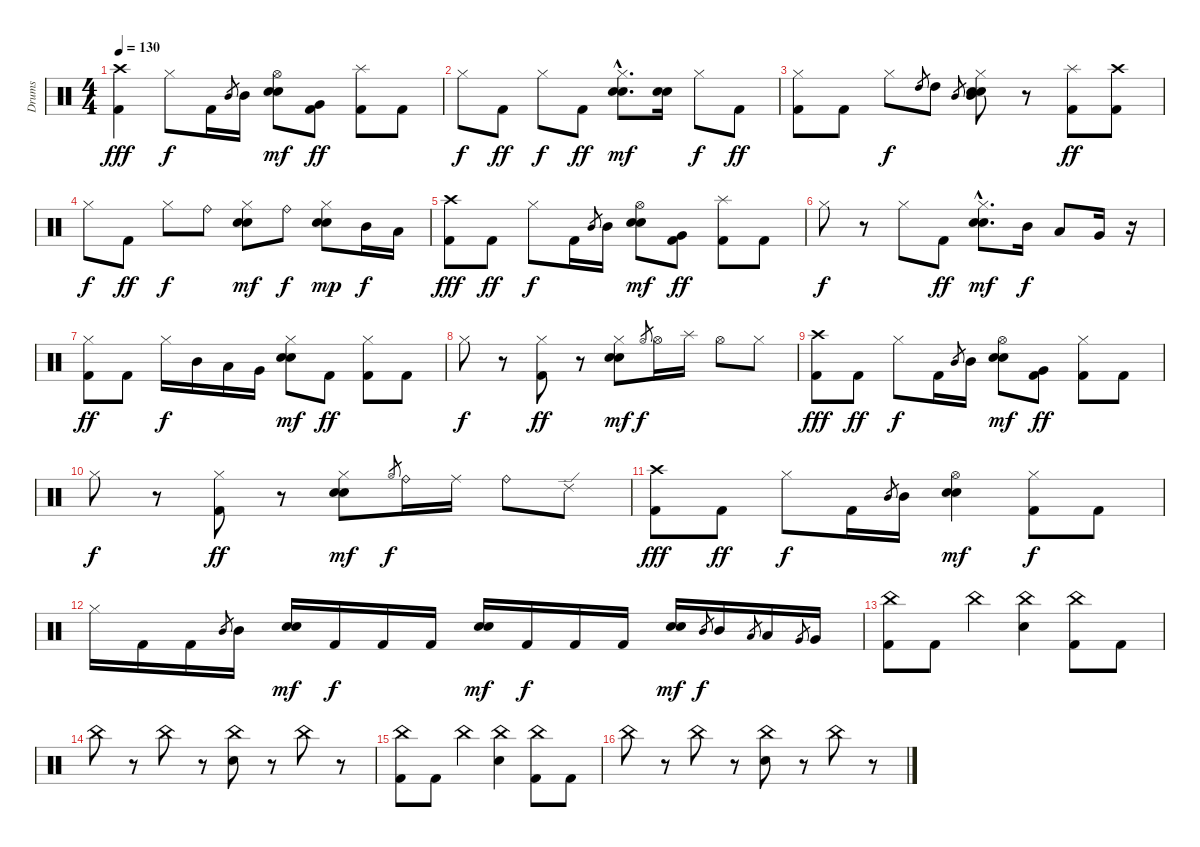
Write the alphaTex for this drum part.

\track ("Drums" "Drums") {instrument percussion}
\staff {score}
\articulation defaults
\ts (4 4)
\tempo 130
\clef neutral
\ks c
("Crash high (hit)" "Kick (hit) 2").4{dy fff} "Hi-Hat (closed)".8{dy f} "Kick (hit) 2".16 "Mid Tom (hit)".8{gr} "Mid Tom (hit)".16 ("Hi-Hat (open)" "Electric Snare (hit)" "Metronome (bell)").8{dy mf} ("Very Low Tom (hit)" "Kick (hit) 2").8{dy ff} ("Splash (hit)" "Kick (hit) 2").8 "Kick (hit) 2".8 |
"Hi-Hat (closed)".8{dy f} "Kick (hit) 2".8{dy ff} "Hi-Hat (closed)".8{dy f} "Kick (hit) 2".8{dy ff} ("Hi-Hat (closed)"{hac} "Electric Snare (hit)"{hac} "Metronome (bell)"{hac}).8{d dy mf} ("Electric Snare (hit)" "Metronome (bell)").16 "Hi-Hat (closed)".8{dy f} "Kick (hit) 2".8{dy ff} |
("Hi-Hat (closed)" "Kick (hit) 2").8 "Kick (hit) 2".8 "Hi-Hat (closed)".8{dy f} "High Tom (hit)".8{gr} "High Tom (hit)".8 "Mid Tom (hit)".8{gr} ("Hi-Hat (closed)" "Mid Tom (hit)" "Electric Snare (hit)" "Metronome (bell)").8 r.8 ("Splash (hit)" "Kick (hit) 2").8{dy ff} ("Crash high (hit)" "Kick (hit) 2").8 |
"Hi-Hat (closed)".8{dy f} "Kick (hit) 2".8{dy ff} "Hi-Hat (closed)".8{dy f} "Ride (bell)".8 ("Hi-Hat (closed)" "Electric Snare (hit)" "Metronome (bell)").8{dy mf} "Ride (bell)".8{dy f} ("Hi-Hat (closed)" "Electric Snare (hit)" "Metronome (bell)").8{dy mp} "Mid Tom (hit)".16{dy f} "Low Tom (hit)".16 |
("Crash high (hit)" "Kick (hit) 2").8{dy fff} "Kick (hit) 2".8{dy ff} "Hi-Hat (closed)".8{dy f} "Kick (hit) 2".16 "Mid Tom (hit)".8{gr} "Mid Tom (hit)".16 ("Hi-Hat (open)" "Electric Snare (hit)" "Metronome (bell)").8{dy mf} ("Very Low Tom (hit)" "Kick (hit) 2").8{dy ff} ("Splash (hit)" "Kick (hit) 2").8 "Kick (hit) 2".8 |
"Hi-Hat (closed)".8{dy f} r.8 "Hi-Hat (closed)".8 "Kick (hit) 2".8{dy ff} ("Hi-Hat (closed)"{hac} "Electric Snare (hit)"{hac} "Metronome (bell)"{hac}).8{d dy mf} "Mid Tom (hit)".16{dy f} "Low Tom (hit)".8 "Very Low Tom (hit)".16 r.16 |
("Hi-Hat (closed)" "Kick (hit) 2").8{dy ff} "Kick (hit) 2".8 "Hi-Hat (closed)".16{dy f} "Mid Tom (hit)".16 "Low Tom (hit)".16 "Very Low Tom (hit)".16 ("Hi-Hat (closed)" "Electric Snare (hit)" "Metronome (bell)").8{dy mf} "Kick (hit) 2".8{dy ff} ("Hi-Hat (closed)" "Kick (hit) 2").8 "Kick (hit) 2".8 |
"Hi-Hat (closed)".8{dy f} r.8 ("Hi-Hat (closed)" "Kick (hit) 2").8{dy ff} r.8 ("Hi-Hat (closed)" "Electric Snare (hit)" "Metronome (bell)").8{dy mf} "Hi-Hat (open)".8{gr dy f} "Hi-Hat (open)".16 "Splash (hit)".16 "Hi-Hat (open)".8 "Hi-Hat (closed)".8 |
("Crash high (hit)" "Kick (hit) 2").8{dy fff} "Kick (hit) 2".8{dy ff} "Hi-Hat (closed)".8{dy f} "Kick (hit) 2".16 "Mid Tom (hit)".8{gr} "Mid Tom (hit)".16 ("Hi-Hat (open)" "Electric Snare (hit)" "Metronome (bell)").8{dy mf} ("Very Low Tom (hit)" "Kick (hit) 2").8{dy ff} ("Hi-Hat (closed)" "Kick (hit) 2").8 "Kick (hit) 2".8 |
"Hi-Hat (closed)".8{dy f} r.8 ("Hi-Hat (closed)" "Kick (hit) 2").8{dy ff} r.8 ("Hi-Hat (closed)" "Electric Snare (hit)" "Metronome (bell)").8{dy mf} "Hi-Hat (open)".8{gr dy f} "Ride (bell)".16 "Ride (middle)".16 "Ride (bell)".8 "Ride (edge) 2".8 |
("Crash high (hit)" "Kick (hit) 2").8{dy fff} "Kick (hit) 2".8{dy ff} "Hi-Hat (closed)".8{dy f} "Kick (hit) 2".16 "Mid Tom (hit)".8{gr} "Mid Tom (hit)".16 ("Hi-Hat (open)" "Electric Snare (hit)" "Metronome (bell)").4{dy mf} ("Hi-Hat (closed)" "Kick (hit) 2").8{dy f} "Kick (hit) 2".8 |
"Hi-Hat (closed)".16 "Kick (hit) 2".16 "Kick (hit) 2".16 "Mid Tom (hit)".8{gr} "Mid Tom (hit)".16 ("Electric Snare (hit)" "Metronome (bell)").16{dy mf} "Kick (hit) 2".16{dy f} "Kick (hit) 2".16 "Kick (hit) 2".16 ("Electric Snare (hit)" "Metronome (bell)").16{dy mf} "Kick (hit) 2".16{dy f} "Kick (hit) 2".16 "Kick (hit) 2".16 ("Electric Snare (hit)" "Metronome (bell)").16{dy mf} "Mid Tom (hit)".8{gr dy f} "Mid Tom (hit)".16 "Low Tom (hit)".8{gr} "Low Tom (hit)".16 "Very Low Tom (hit)".8{gr} "Very Low Tom (hit)".16 |
("China (hit)" "Kick (hit) 2").8 "Kick (hit) 2".8 "China (hit)".4 ("China (hit)" "Electric Snare (hit)").4 ("China (hit)" "Kick (hit) 2").8 "Kick (hit) 2".8 |
"China (hit)".8 r.8 "China (hit)".8 r.8 ("China (hit)" "Electric Snare (hit)").8 r.8 "China (hit)".8 r.8 |
("China (hit)" "Kick (hit) 2").8 "Kick (hit) 2".8 "China (hit)".4 ("China (hit)" "Electric Snare (hit)").4 ("China (hit)" "Kick (hit) 2").8 "Kick (hit) 2".8 |
"China (hit)".8 r.8 "China (hit)".8 r.8 ("China (hit)" "Electric Snare (hit)").8 r.8 "China (hit)".8 r.8
